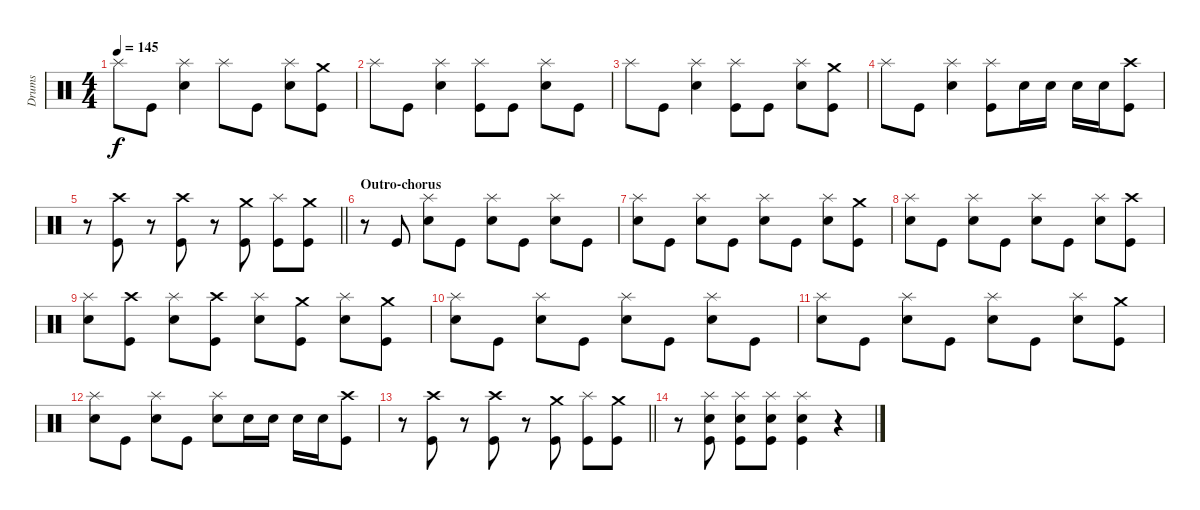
\track ("Drums" "Drums") {instrument percussion}
\staff {score}
\articulation defaults
\ts (4 4)
\tempo 145
\clef neutral
\ks c "Splash (hit)".8{dy f} "Kick (hit)".8
("Splash (hit)" "Electric Snare (hit)").4 "Splash (hit)".8 "Kick (hit)".8 ("Splash (hit)" "Electric Snare (hit)").8 ("Crash medium (hit)" "Kick (hit)").8 |
"Splash (hit)".8 "Kick (hit)".8 ("Splash (hit)" "Electric Snare (hit)").4 ("Splash (hit)" "Kick (hit)").8 "Kick (hit)".8 ("Splash (hit)" "Electric Snare (hit)").8 "Kick (hit)".8 |
"Splash (hit)".8 "Kick (hit)".8 ("Splash (hit)" "Electric Snare (hit)").4 ("Splash (hit)" "Kick (hit)").8 "Kick (hit)".8 ("Splash (hit)" "Electric Snare (hit)").8 ("Crash medium (hit)" "Kick (hit)").8 |
"Splash (hit)".8 "Kick (hit)".8 ("Splash (hit)" "Electric Snare (hit)").4 ("Splash (hit)" "Kick (hit)").8 "Electric Snare (hit)".16 "Electric Snare (hit)".16 "Electric Snare (hit)".16 "Electric Snare (hit)".16 ("Crash high (hit)" "Kick (hit)").8 |
\barLineRight lightlight
r.8 ("Crash high (hit)" "Kick (hit)").8 r.8 ("Crash high (hit)" "Kick (hit)").8 r.8 ("Crash medium (hit)" "Kick (hit)").8 ("Splash (hit)" "Kick (hit)").8 ("Crash medium (hit)" "Kick (hit)").8 |
\section ("" "Outro-chorus")
r.8 "Kick (hit)".8 ("Splash (hit)" "Electric Snare (hit)").8 "Kick (hit)".8 ("Splash (hit)" "Electric Snare (hit)").8 "Kick (hit)".8 ("Splash (hit)" "Electric Snare (hit)").8 "Kick (hit)".8 |
("Splash (hit)" "Electric Snare (hit)").8 "Kick (hit)".8 ("Splash (hit)" "Electric Snare (hit)").8 "Kick (hit)".8 ("Splash (hit)" "Electric Snare (hit)").8 "Kick (hit)".8 ("Splash (hit)" "Electric Snare (hit)").8 ("Crash medium (hit)" "Kick (hit)").8 |
("Splash (hit)" "Electric Snare (hit)").8 "Kick (hit)".8 ("Splash (hit)" "Electric Snare (hit)").8 "Kick (hit)".8 ("Splash (hit)" "Electric Snare (hit)").8 "Kick (hit)".8 ("Splash (hit)" "Electric Snare (hit)").8 ("Crash high (hit)" "Kick (hit)").8 |
("Splash (hit)" "Electric Snare (hit)").8 ("Crash high (hit)" "Kick (hit)").8 ("Splash (hit)" "Electric Snare (hit)").8 ("Crash high (hit)" "Kick (hit)").8 ("Splash (hit)" "Electric Snare (hit)").8 ("Crash medium (hit)" "Kick (hit)").8 ("Splash (hit)" "Electric Snare (hit)").8 ("Crash medium (hit)" "Kick (hit)").8 |
("Splash (hit)" "Electric Snare (hit)").8 "Kick (hit)".8 ("Splash (hit)" "Electric Snare (hit)").8 "Kick (hit)".8 ("Splash (hit)" "Electric Snare (hit)").8 "Kick (hit)".8 ("Splash (hit)" "Electric Snare (hit)").8 "Kick (hit)".8 |
("Splash (hit)" "Electric Snare (hit)").8 "Kick (hit)".8 ("Splash (hit)" "Electric Snare (hit)").8 "Kick (hit)".8 ("Splash (hit)" "Electric Snare (hit)").8 "Kick (hit)".8 ("Splash (hit)" "Electric Snare (hit)").8 ("Crash medium (hit)" "Kick (hit)").8 |
("Splash (hit)" "Electric Snare (hit)").8 "Kick (hit)".8 ("Splash (hit)" "Electric Snare (hit)").8 "Kick (hit)".8 ("Splash (hit)" "Electric Snare (hit)").8 "Electric Snare (hit)".16 "Electric Snare (hit)".16 "Electric Snare (hit)".16 "Electric Snare (hit)".16 ("Crash high (hit)" "Kick (hit)").8 |
\barLineRight lightlight
r.8 ("Crash high (hit)" "Kick (hit)").8 r.8 ("Crash high (hit)" "Kick (hit)").8 r.8 ("Crash medium (hit)" "Kick (hit)").8 ("Splash (hit)" "Kick (hit)").8 ("Crash medium (hit)" "Kick (hit)").8 |
r.8 ("Splash (hit)" "Electric Snare (hit)" "Kick (hit)").8 ("Splash (hit)" "Electric Snare (hit)" "Kick (hit)").8 ("Splash (hit)" "Electric Snare (hit)" "Kick (hit)").8 ("Splash (hit)" "Electric Snare (hit)" "Kick (hit)").4 r.4
